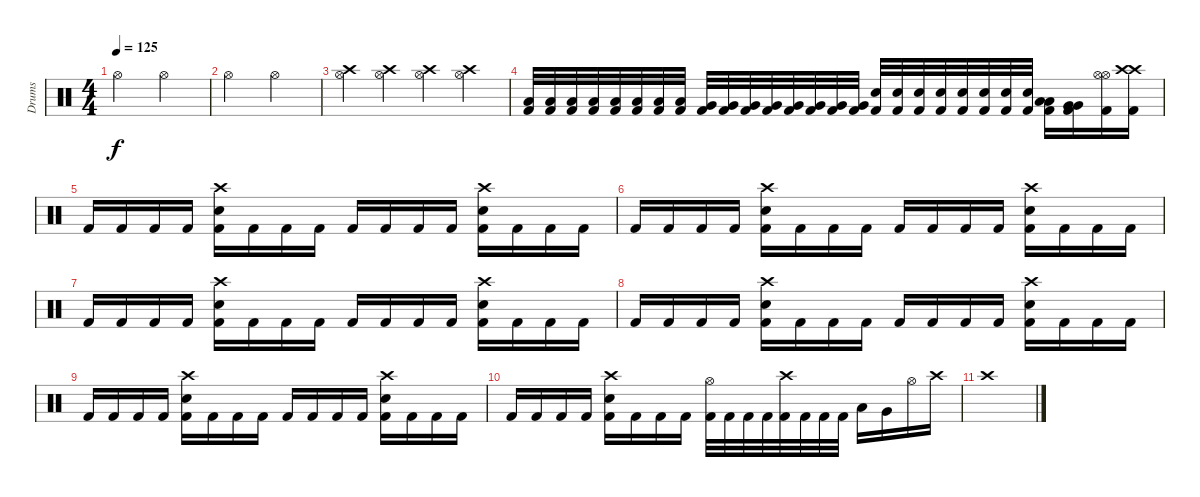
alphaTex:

\track ("Drums" "Drums") {instrument percussion}
\staff {score}
\articulation defaults
\ts (4 4)
\tempo 125
\clef neutral
\ks c "Hi-Hat (open)".2{dy f} "Hi-Hat (open)".2
|
"Hi-Hat (open)".2 "Hi-Hat (open)".2 |
("Crash high (hit)" "Hi-Hat (open)").4 ("Crash high (hit)" "Hi-Hat (open)").4 ("Crash high (hit)" "Hi-Hat (open)").4 ("Crash high (hit)" "Hi-Hat (open)").4 |
("Low Tom (hit)" "Kick (hit) 2").32 ("Low Tom (hit)" "Kick (hit) 2").32 ("Low Tom (hit)" "Kick (hit) 2").32 ("Low Tom (hit)" "Kick (hit) 2").32 ("Low Tom (hit)" "Kick (hit) 2").32 ("Low Tom (hit)" "Kick (hit) 2").32 ("Low Tom (hit)" "Kick (hit) 2").32 ("Low Tom (hit)" "Kick (hit) 2").32 ("Very Low Tom (hit)" "Kick (hit) 2").32 ("Very Low Tom (hit)" "Kick (hit) 2").32 ("Very Low Tom (hit)" "Kick (hit) 2").32 ("Very Low Tom (hit)" "Kick (hit) 2").32 ("Very Low Tom (hit)" "Kick (hit) 2").32 ("Very Low Tom (hit)" "Kick (hit) 2").32 ("Very Low Tom (hit)" "Kick (hit) 2").32 ("Very Low Tom (hit)" "Kick (hit) 2").32 ("Snare (hit) 2" "Kick (hit) 2").32 ("Snare (hit) 2" "Kick (hit) 2").32 ("Snare (hit) 2" "Kick (hit) 2").32 ("Snare (hit) 2" "Kick (hit) 2").32 ("Snare (hit) 2" "Kick (hit) 2").32 ("Snare (hit) 2" "Kick (hit) 2").32 ("Snare (hit) 2" "Kick (hit) 2").32 ("Snare (hit) 2" "Kick (hit) 2").32 ("Low Tom (hit)" "Low Tom (hit)" "Kick (hit) 2").16 ("Very Low Tom (hit)" "Very Low Tom (hit)" "Kick (hit) 2").16 ("Hi-Hat (open)" "Hi-Hat (open)" "Kick (hit) 2").16 ("Crash high (hit)" "Crash high (hit)" "Kick (hit) 2").16 |
"Kick (hit) 2".16 "Kick (hit) 2".16 "Kick (hit) 2".16 "Kick (hit) 2".16 ("Crash high (hit)" "Kick (hit) 2" "Snare (hit) 2").16 "Kick (hit) 2".16 "Kick (hit) 2".16 "Kick (hit) 2".16 "Kick (hit) 2".16 "Kick (hit) 2".16 "Kick (hit) 2".16 "Kick (hit) 2".16 ("Crash high (hit)" "Kick (hit) 2" "Snare (hit) 2").16 "Kick (hit) 2".16 "Kick (hit) 2".16 "Kick (hit) 2".16 |
"Kick (hit) 2".16 "Kick (hit) 2".16 "Kick (hit) 2".16 "Kick (hit) 2".16 ("Crash high (hit)" "Kick (hit) 2" "Snare (hit) 2").16 "Kick (hit) 2".16 "Kick (hit) 2".16 "Kick (hit) 2".16 "Kick (hit) 2".16 "Kick (hit) 2".16 "Kick (hit) 2".16 "Kick (hit) 2".16 ("Crash high (hit)" "Kick (hit) 2" "Snare (hit) 2").16 "Kick (hit) 2".16 "Kick (hit) 2".16 "Kick (hit) 2".16 |
"Kick (hit) 2".16 "Kick (hit) 2".16 "Kick (hit) 2".16 "Kick (hit) 2".16 ("Crash high (hit)" "Kick (hit) 2" "Snare (hit) 2").16 "Kick (hit) 2".16 "Kick (hit) 2".16 "Kick (hit) 2".16 "Kick (hit) 2".16 "Kick (hit) 2".16 "Kick (hit) 2".16 "Kick (hit) 2".16 ("Crash high (hit)" "Kick (hit) 2" "Snare (hit) 2").16 "Kick (hit) 2".16 "Kick (hit) 2".16 "Kick (hit) 2".16 |
"Kick (hit) 2".16 "Kick (hit) 2".16 "Kick (hit) 2".16 "Kick (hit) 2".16 ("Crash high (hit)" "Kick (hit) 2" "Snare (hit) 2").16 "Kick (hit) 2".16 "Kick (hit) 2".16 "Kick (hit) 2".16 "Kick (hit) 2".16 "Kick (hit) 2".16 "Kick (hit) 2".16 "Kick (hit) 2".16 ("Crash high (hit)" "Kick (hit) 2" "Snare (hit) 2").16 "Kick (hit) 2".16 "Kick (hit) 2".16 "Kick (hit) 2".16 |
"Kick (hit) 2".16 "Kick (hit) 2".16 "Kick (hit) 2".16 "Kick (hit) 2".16 ("Crash high (hit)" "Kick (hit) 2" "Snare (hit) 2").16 "Kick (hit) 2".16 "Kick (hit) 2".16 "Kick (hit) 2".16 "Kick (hit) 2".16 "Kick (hit) 2".16 "Kick (hit) 2".16 "Kick (hit) 2".16 ("Crash high (hit)" "Kick (hit) 2" "Snare (hit) 2").16 "Kick (hit) 2".16 "Kick (hit) 2".16 "Kick (hit) 2".16 |
"Kick (hit) 2".16 "Kick (hit) 2".16 "Kick (hit) 2".16 "Kick (hit) 2".16 ("Crash high (hit)" "Kick (hit) 2" "Snare (hit) 2").16 "Kick (hit) 2".16 "Kick (hit) 2".16 "Kick (hit) 2".16 ("Hi-Hat (open)" "Kick (hit) 2").32 "Kick (hit) 2".32 "Kick (hit) 2".32 "Kick (hit) 2".32 ("Crash high (hit)" "Kick (hit) 2").32 "Kick (hit) 2".32 "Kick (hit) 2".32 "Kick (hit) 2".32 "Low Tom (hit)".16 "Very Low Tom (hit)".16 "Hi-Hat (open)".16 "Crash high (hit)".16 |
"Crash high (hit)".1
